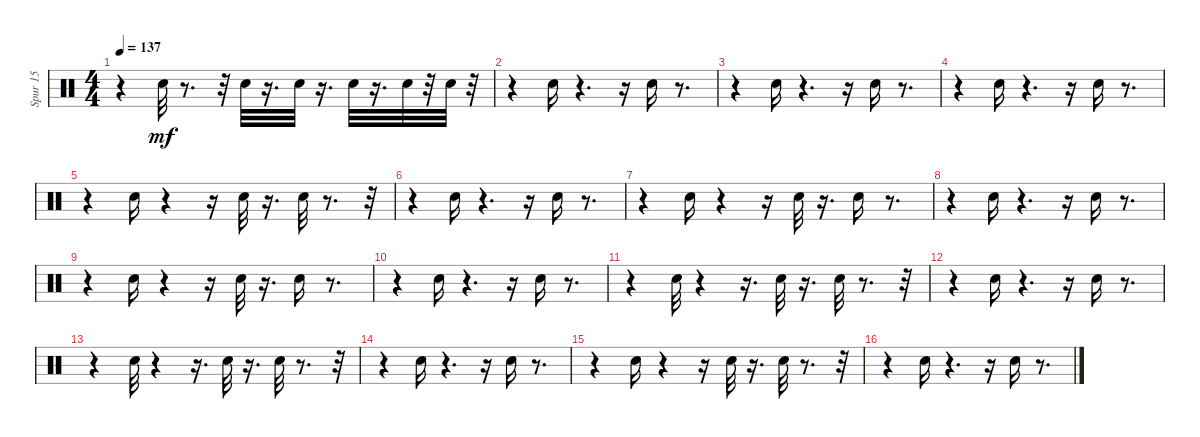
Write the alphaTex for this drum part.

\track ("Spur 15" "Spur 15") {instrument percussion}
\staff {score}
\articulation defaults
\ts (4 4)
\tempo 137
\clef neutral
\ks c
r.4{dy mf} "Hand Clap (hit)".32 r.8{d} r.32 "Hand Clap (hit)".32 r.16{d} "Hand Clap (hit)".32 r.16{d} "Hand Clap (hit)".32 r.16{d} "Hand Clap (hit)".32 r.32 "Hand Clap (hit)".32 r.32 |
r.4 "Hand Clap (hit)".16 r.4{d} r.16 "Hand Clap (hit)".16 r.8{d} |
r.4 "Hand Clap (hit)".16 r.4{d} r.16 "Hand Clap (hit)".16 r.8{d} |
r.4 "Hand Clap (hit)".16 r.4{d} r.16 "Hand Clap (hit)".16 r.8{d} |
r.4 "Hand Clap (hit)".16 r.4 r.16 "Hand Clap (hit)".32 r.16{d} "Hand Clap (hit)".32 r.8{d} r.32 |
r.4 "Hand Clap (hit)".16 r.4{d} r.16 "Hand Clap (hit)".16 r.8{d} |
r.4 "Hand Clap (hit)".16 r.4 r.16 "Hand Clap (hit)".32 r.16{d} "Hand Clap (hit)".16 r.8{d} |
r.4 "Hand Clap (hit)".16 r.4{d} r.16 "Hand Clap (hit)".16 r.8{d} |
r.4 "Hand Clap (hit)".16 r.4 r.16 "Hand Clap (hit)".32 r.16{d} "Hand Clap (hit)".16 r.8{d} |
r.4 "Hand Clap (hit)".16 r.4{d} r.16 "Hand Clap (hit)".16 r.8{d} |
r.4 "Hand Clap (hit)".32 r.4 r.16{d} "Hand Clap (hit)".32 r.16{d} "Hand Clap (hit)".32 r.8{d} r.32 |
r.4 "Hand Clap (hit)".16 r.4{d} r.16 "Hand Clap (hit)".16 r.8{d} |
r.4 "Hand Clap (hit)".32 r.4 r.16{d} "Hand Clap (hit)".32 r.16{d} "Hand Clap (hit)".32 r.8{d} r.32 |
r.4 "Hand Clap (hit)".16 r.4{d} r.16 "Hand Clap (hit)".16 r.8{d} |
r.4 "Hand Clap (hit)".16 r.4 r.16 "Hand Clap (hit)".32 r.16{d} "Hand Clap (hit)".32 r.8{d} r.32 |
r.4 "Hand Clap (hit)".16 r.4{d} r.16 "Hand Clap (hit)".16 r.8{d}
